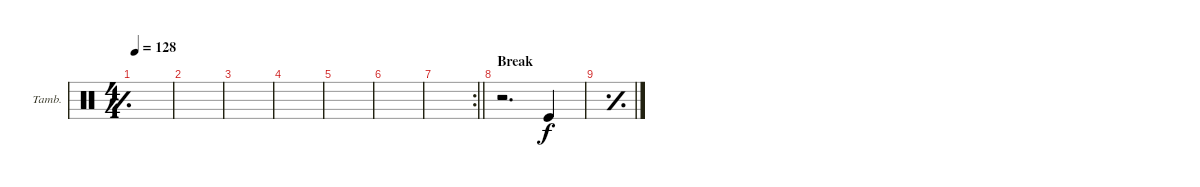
\defaultSystemsLayout 4
\bracketExtendMode groupsimilarinstruments
\firstSystemTrackNameOrientation horizontal
\otherSystemsTrackNameOrientation horizontal
\track ("Tambourine" "Tamb.") {instrument percussion}
\staff {score}
\articulation defaults
\ts (4 4)
\tempo 128
\clef neutral
\simile simple
\scale
0.311475
\ks c
|
\scale
0.333333 |
\scale
0.333333 |
\scale
0.333333 |
\scale
0.322034 |
\scale
0.322034 |
\rc 2
\scale
0.355932
\barLineRight lightlight
|
\section ("" "Break")
\simile none
\scale
0.333333 r.2{d} "Kick (hit)".4 |
\simile simple
\scale
0.333333 |
\scale
0.333333 |
\scale
0.333333 |
\scale
0.333333 |
\scale
0.333333 |
\scale
0.333333 |
\scale
0.333333 |
\scale
0.333333
